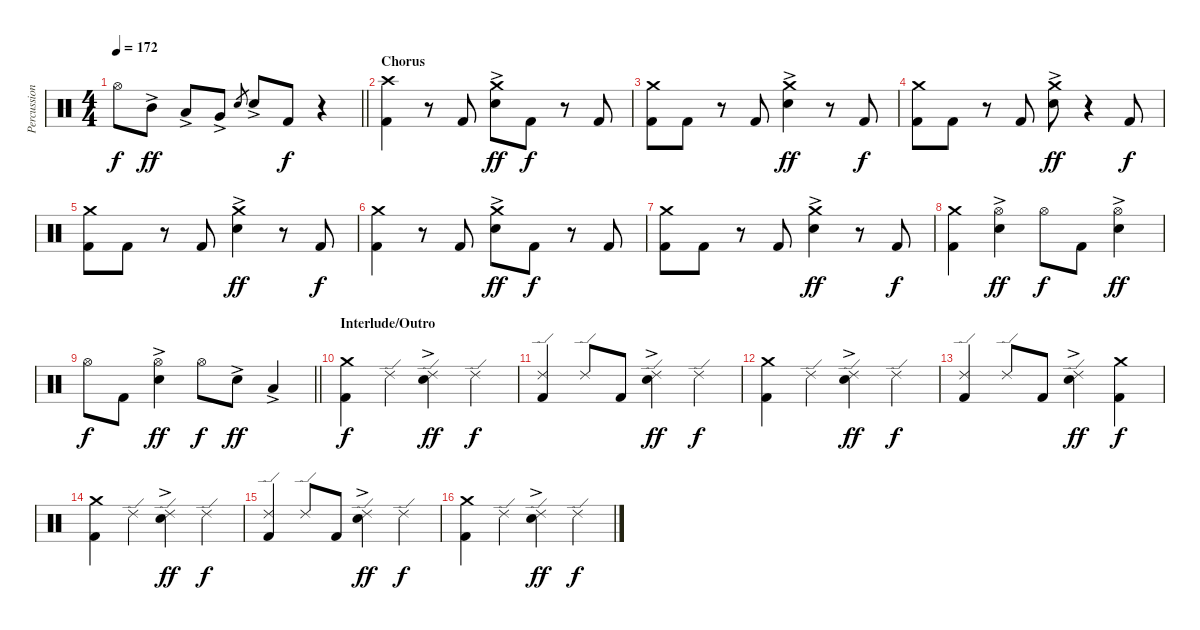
\track ("Percussion" "Percussion") {instrument percussion}
\staff {score}
\articulation defaults
\ts (4 4)
\tempo 172
\clef neutral
\barLineRight lightlight
\ks c "Hi-Hat (open)".8{dy f} "Mid Tom (hit)"{ac}.8{dy ff} "Low Tom (hit)"{ac}.8 "Very Low Tom (hit)"{ac}.8 "Electric Snare (hit)".8{gr} "Electric Snare (hit)"{ac}.8 "Kick (hit) 2".8{dy f}
r.4 |
\section ("" "Chorus")
("Crash high (hit)" "Kick (hit) 2").4 r.8 "Kick (hit) 2".8 ("Crash medium (hit)" "Electric Snare (hit)"{ac}).8{dy ff} "Kick (hit) 2".8{dy f} r.8 "Kick (hit) 2".8 |
("Crash medium (hit)" "Kick (hit) 2").8 "Kick (hit) 2".8 r.8 "Kick (hit) 2".8 ("Crash medium (hit)" "Electric Snare (hit)"{ac}).4{dy ff} r.8 "Kick (hit) 2".8{dy f} |
("Crash medium (hit)" "Kick (hit) 2").8 "Kick (hit) 2".8 r.8 "Kick (hit) 2".8 ("Crash medium (hit)" "Electric Snare (hit)"{ac}).8{dy ff} r.4 "Kick (hit) 2".8{dy f} |
("Crash medium (hit)" "Kick (hit) 2").8 "Kick (hit) 2".8 r.8 "Kick (hit) 2".8 ("Crash medium (hit)" "Electric Snare (hit)"{ac}).4{dy ff} r.8 "Kick (hit) 2".8{dy f} |
("Crash medium (hit)" "Kick (hit) 2").4 r.8 "Kick (hit) 2".8 ("Crash medium (hit)" "Electric Snare (hit)"{ac}).8{dy ff} "Kick (hit) 2".8{dy f} r.8 "Kick (hit) 2".8 |
("Crash medium (hit)" "Kick (hit) 2").8 "Kick (hit) 2".8 r.8 "Kick (hit) 2".8 ("Crash medium (hit)" "Electric Snare (hit)"{ac}).4{dy ff} r.8 "Kick (hit) 2".8{dy f} |
("Crash medium (hit)" "Kick (hit) 2").4 ("Hi-Hat (open)" "Electric Snare (hit)"{ac}).4{dy ff} "Hi-Hat (open)".8{dy f} "Kick (hit) 2".8 ("Hi-Hat (open)" "Electric Snare (hit)"{ac}).4{dy ff} |
\barLineRight lightlight "Hi-Hat (open)".8{dy f} "Kick (hit) 2".8
("Hi-Hat (open)" "Electric Snare (hit)"{ac}).4{dy ff} "Hi-Hat (open)".8{dy f} "Electric Snare (hit)"{ac}.8{dy ff} "Low Tom (hit)"{ac}.4 |
\section ("" "Interlude/Outro")
("Crash medium (hit)" "Kick (hit) 2").4{dy f} "Ride (edge) 2".4 ("Ride (edge) 2" "Electric Snare (hit)"{ac}).4{dy ff} "Ride (edge) 2".4{dy f} |
("Ride (edge) 2" "Kick (hit) 2").4 "Ride (edge) 2".8 "Kick (hit) 2".8 ("Ride (edge) 2" "Electric Snare (hit)"{ac}).4{dy ff} "Ride (edge) 2".4{dy f} |
("Crash medium (hit)" "Kick (hit) 2").4 "Ride (edge) 2".4 ("Ride (edge) 2" "Electric Snare (hit)"{ac}).4{dy ff} "Ride (edge) 2".4{dy f} |
("Ride (edge) 2" "Kick (hit) 2").4 "Ride (edge) 2".8 "Kick (hit) 2".8 ("Ride (edge) 2" "Electric Snare (hit)"{ac}).4{dy ff} ("Crash medium (hit)" "Kick (hit) 2").4{dy f} |
("Crash medium (hit)" "Kick (hit) 2").4 "Ride (edge) 2".4 ("Ride (edge) 2" "Electric Snare (hit)"{ac}).4{dy ff} "Ride (edge) 2".4{dy f} |
("Ride (edge) 2" "Kick (hit) 2").4 "Ride (edge) 2".8 "Kick (hit) 2".8 ("Ride (edge) 2" "Electric Snare (hit)"{ac}).4{dy ff} "Ride (edge) 2".4{dy f} |
("Crash medium (hit)" "Kick (hit) 2").4 "Ride (edge) 2".4 ("Ride (edge) 2" "Electric Snare (hit)"{ac}).4{dy ff} "Ride (edge) 2".4{dy f}
